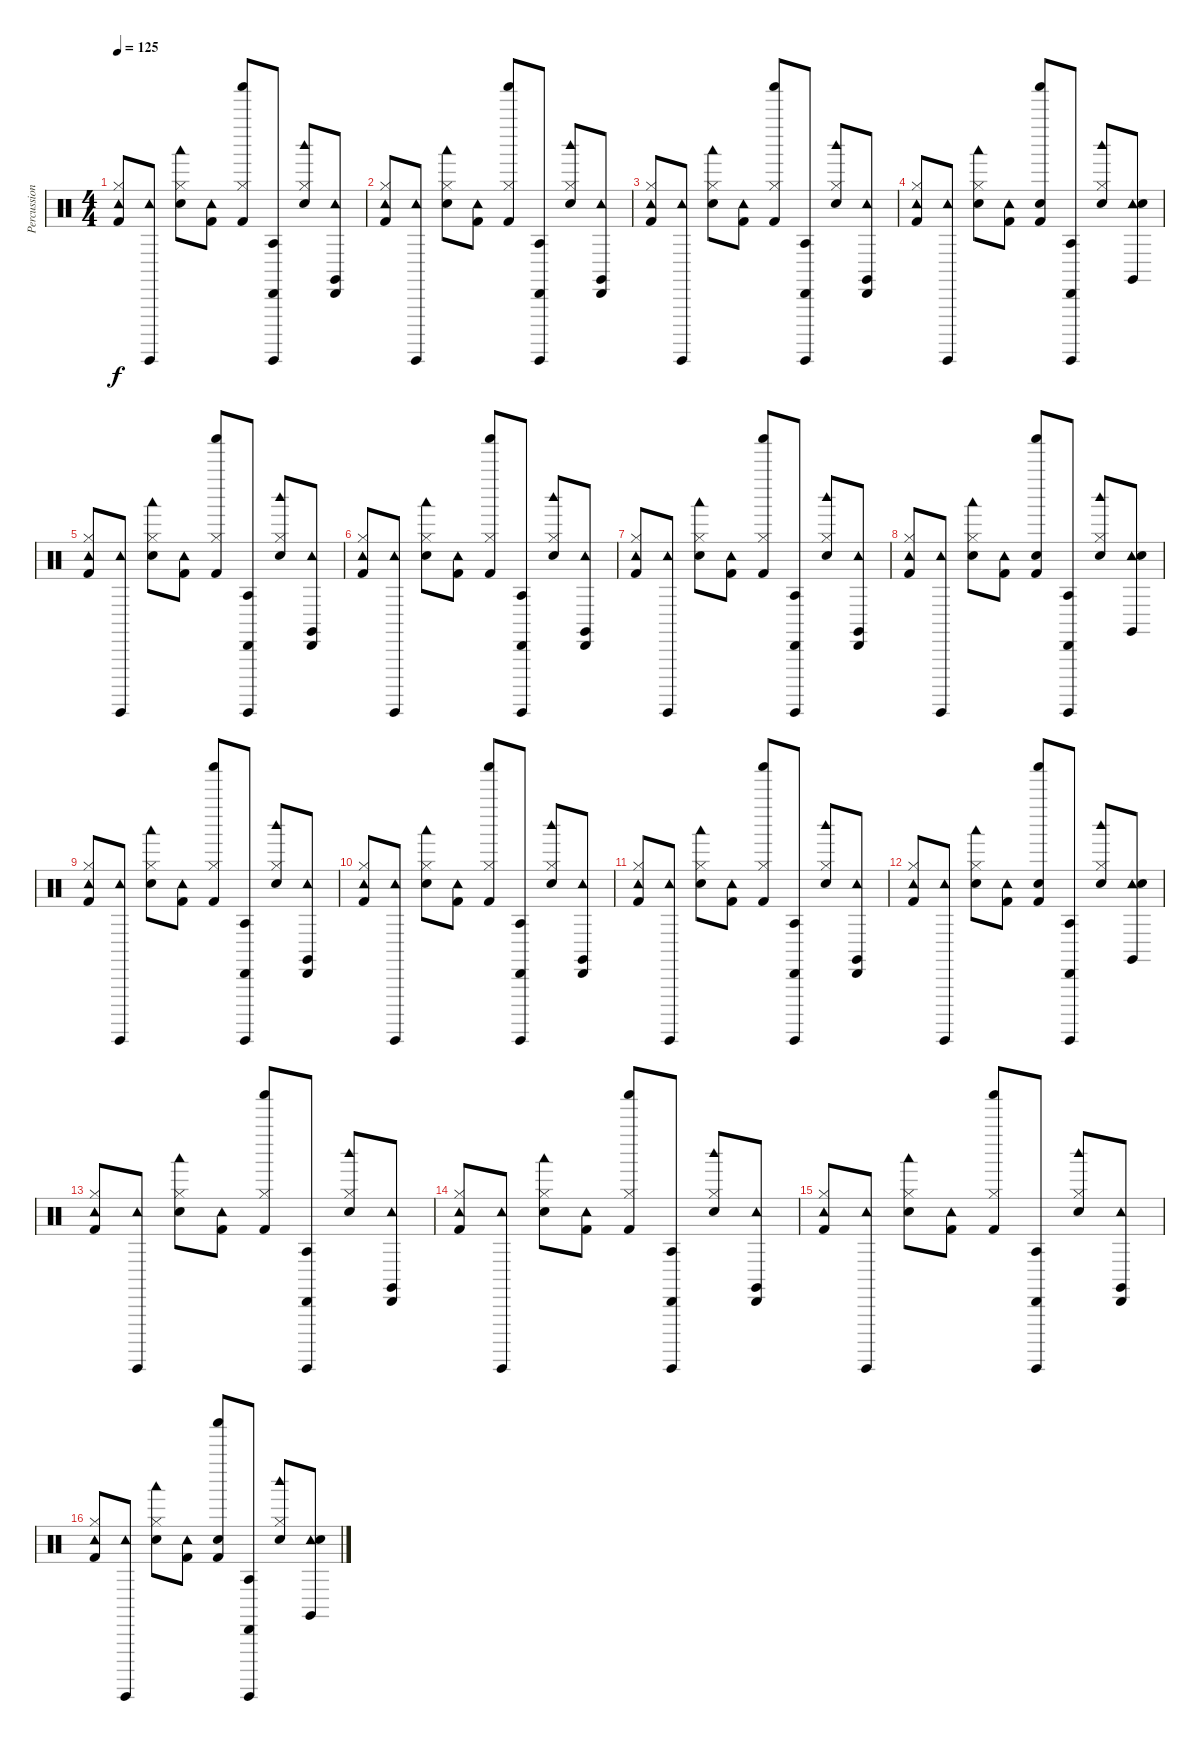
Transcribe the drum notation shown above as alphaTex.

\track ("Percussion" "Percussion") {instrument percussion}
\staff {score}
\articulation defaults
\ts (4 4)
\tempo 125
\clef neutral
\ks c
("Tambourine (hit)" "Hi-Hat (closed)" "Kick (hit) 2").8{dy f} ("Tambourine (hit)" "Guiro (hit)").8 ("Electric Snare (hit)" "Hi-Hat (closed)" "Woodblock low (hit)").8 ("Tambourine (hit)" "Kick (hit) 2").8 ("Shaker (hit)" "Hi-Hat (closed)" "Kick (hit) 2").8 ("Cabasa (hit)" "Guiro (hit)" "Agogo tow (hit)").8 ("Electric Snare (hit)" "Hi-Hat (closed)" "Woodblock high (hit)").8 ("Tambourine (hit)" "Cabasa (hit)" "Claves (hit)").8 |
("Tambourine (hit)" "Hi-Hat (closed)" "Kick (hit) 2").8 ("Tambourine (hit)" "Guiro (hit)").8 ("Electric Snare (hit)" "Hi-Hat (closed)" "Woodblock low (hit)").8 ("Tambourine (hit)" "Kick (hit) 2").8 ("Shaker (hit)" "Hi-Hat (closed)" "Kick (hit) 2").8 ("Cabasa (hit)" "Guiro (hit)" "Agogo tow (hit)").8 ("Electric Snare (hit)" "Hi-Hat (closed)" "Woodblock high (hit)").8 ("Tambourine (hit)" "Cabasa (hit)" "Claves (hit)").8 |
("Tambourine (hit)" "Hi-Hat (closed)" "Kick (hit) 2").8 ("Tambourine (hit)" "Guiro (hit)").8 ("Electric Snare (hit)" "Hi-Hat (closed)" "Woodblock low (hit)").8 ("Tambourine (hit)" "Kick (hit) 2").8 ("Shaker (hit)" "Hi-Hat (closed)" "Kick (hit) 2").8 ("Cabasa (hit)" "Guiro (hit)" "Agogo tow (hit)").8 ("Electric Snare (hit)" "Hi-Hat (closed)" "Woodblock high (hit)").8 ("Tambourine (hit)" "Cabasa (hit)" "Claves (hit)").8 |
("Tambourine (hit)" "Hi-Hat (closed)" "Kick (hit) 2").8 ("Tambourine (hit)" "Guiro (hit)").8 ("Electric Snare (hit)" "Hi-Hat (closed)" "Woodblock low (hit)").8 ("Tambourine (hit)" "Kick (hit) 2").8 ("Shaker (hit)" "Electric Snare (hit)" "Kick (hit) 2").8 ("Cabasa (hit)" "Guiro (hit)" "Agogo tow (hit)").8 ("Electric Snare (hit)" "Hi-Hat (closed)" "Woodblock high (hit)").8 ("Tambourine (hit)" "Electric Snare (hit)" "Claves (hit)").8 |
("Tambourine (hit)" "Hi-Hat (closed)" "Kick (hit) 2").8 ("Tambourine (hit)" "Guiro (hit)").8 ("Electric Snare (hit)" "Hi-Hat (closed)" "Woodblock low (hit)").8 ("Tambourine (hit)" "Kick (hit) 2").8 ("Shaker (hit)" "Hi-Hat (closed)" "Kick (hit) 2").8 ("Cabasa (hit)" "Guiro (hit)" "Agogo tow (hit)").8 ("Electric Snare (hit)" "Hi-Hat (closed)" "Woodblock high (hit)").8 ("Tambourine (hit)" "Cabasa (hit)" "Claves (hit)").8 |
("Tambourine (hit)" "Hi-Hat (closed)" "Kick (hit) 2").8 ("Tambourine (hit)" "Guiro (hit)").8 ("Electric Snare (hit)" "Hi-Hat (closed)" "Woodblock low (hit)").8 ("Tambourine (hit)" "Kick (hit) 2").8 ("Shaker (hit)" "Hi-Hat (closed)" "Kick (hit) 2").8 ("Cabasa (hit)" "Guiro (hit)" "Agogo tow (hit)").8 ("Electric Snare (hit)" "Hi-Hat (closed)" "Woodblock high (hit)").8 ("Tambourine (hit)" "Cabasa (hit)" "Claves (hit)").8 |
("Tambourine (hit)" "Hi-Hat (closed)" "Kick (hit) 2").8 ("Tambourine (hit)" "Guiro (hit)").8 ("Electric Snare (hit)" "Hi-Hat (closed)" "Woodblock low (hit)").8 ("Tambourine (hit)" "Kick (hit) 2").8 ("Shaker (hit)" "Hi-Hat (closed)" "Kick (hit) 2").8 ("Cabasa (hit)" "Guiro (hit)" "Agogo tow (hit)").8 ("Electric Snare (hit)" "Hi-Hat (closed)" "Woodblock high (hit)").8 ("Tambourine (hit)" "Cabasa (hit)" "Claves (hit)").8 |
("Tambourine (hit)" "Hi-Hat (closed)" "Kick (hit) 2").8 ("Tambourine (hit)" "Guiro (hit)").8 ("Electric Snare (hit)" "Hi-Hat (closed)" "Woodblock low (hit)").8 ("Tambourine (hit)" "Kick (hit) 2").8 ("Shaker (hit)" "Electric Snare (hit)" "Kick (hit) 2").8 ("Cabasa (hit)" "Guiro (hit)" "Agogo tow (hit)").8 ("Electric Snare (hit)" "Hi-Hat (closed)" "Woodblock high (hit)").8 ("Tambourine (hit)" "Electric Snare (hit)" "Claves (hit)").8 |
("Tambourine (hit)" "Hi-Hat (closed)" "Kick (hit) 2").8 ("Tambourine (hit)" "Guiro (hit)").8 ("Electric Snare (hit)" "Hi-Hat (closed)" "Woodblock low (hit)").8 ("Tambourine (hit)" "Kick (hit) 2").8 ("Shaker (hit)" "Hi-Hat (closed)" "Kick (hit) 2").8 ("Cabasa (hit)" "Guiro (hit)" "Agogo tow (hit)").8 ("Electric Snare (hit)" "Hi-Hat (closed)" "Woodblock high (hit)").8 ("Tambourine (hit)" "Cabasa (hit)" "Claves (hit)").8 |
("Tambourine (hit)" "Hi-Hat (closed)" "Kick (hit) 2").8 ("Tambourine (hit)" "Guiro (hit)").8 ("Electric Snare (hit)" "Hi-Hat (closed)" "Woodblock low (hit)").8 ("Tambourine (hit)" "Kick (hit) 2").8 ("Shaker (hit)" "Hi-Hat (closed)" "Kick (hit) 2").8 ("Cabasa (hit)" "Guiro (hit)" "Agogo tow (hit)").8 ("Electric Snare (hit)" "Hi-Hat (closed)" "Woodblock high (hit)").8 ("Tambourine (hit)" "Cabasa (hit)" "Claves (hit)").8 |
("Tambourine (hit)" "Hi-Hat (closed)" "Kick (hit) 2").8 ("Tambourine (hit)" "Guiro (hit)").8 ("Electric Snare (hit)" "Hi-Hat (closed)" "Woodblock low (hit)").8 ("Tambourine (hit)" "Kick (hit) 2").8 ("Shaker (hit)" "Hi-Hat (closed)" "Kick (hit) 2").8 ("Cabasa (hit)" "Guiro (hit)" "Agogo tow (hit)").8 ("Electric Snare (hit)" "Hi-Hat (closed)" "Woodblock high (hit)").8 ("Tambourine (hit)" "Cabasa (hit)" "Claves (hit)").8 |
("Tambourine (hit)" "Hi-Hat (closed)" "Kick (hit) 2").8 ("Tambourine (hit)" "Guiro (hit)").8 ("Electric Snare (hit)" "Hi-Hat (closed)" "Woodblock low (hit)").8 ("Tambourine (hit)" "Kick (hit) 2").8 ("Shaker (hit)" "Electric Snare (hit)" "Kick (hit) 2").8 ("Cabasa (hit)" "Guiro (hit)" "Agogo tow (hit)").8 ("Electric Snare (hit)" "Hi-Hat (closed)" "Woodblock high (hit)").8 ("Tambourine (hit)" "Electric Snare (hit)" "Claves (hit)").8 |
("Tambourine (hit)" "Hi-Hat (closed)" "Kick (hit) 2").8 ("Tambourine (hit)" "Guiro (hit)").8 ("Electric Snare (hit)" "Hi-Hat (closed)" "Woodblock low (hit)").8 ("Tambourine (hit)" "Kick (hit) 2").8 ("Shaker (hit)" "Hi-Hat (closed)" "Kick (hit) 2").8 ("Cabasa (hit)" "Guiro (hit)" "Agogo tow (hit)").8 ("Electric Snare (hit)" "Hi-Hat (closed)" "Woodblock high (hit)").8 ("Tambourine (hit)" "Cabasa (hit)" "Claves (hit)").8 |
("Tambourine (hit)" "Hi-Hat (closed)" "Kick (hit) 2").8 ("Tambourine (hit)" "Guiro (hit)").8 ("Electric Snare (hit)" "Hi-Hat (closed)" "Woodblock low (hit)").8 ("Tambourine (hit)" "Kick (hit) 2").8 ("Shaker (hit)" "Hi-Hat (closed)" "Kick (hit) 2").8 ("Cabasa (hit)" "Guiro (hit)" "Agogo tow (hit)").8 ("Electric Snare (hit)" "Hi-Hat (closed)" "Woodblock high (hit)").8 ("Tambourine (hit)" "Cabasa (hit)" "Claves (hit)").8 |
("Tambourine (hit)" "Hi-Hat (closed)" "Kick (hit) 2").8 ("Tambourine (hit)" "Guiro (hit)").8 ("Electric Snare (hit)" "Hi-Hat (closed)" "Woodblock low (hit)").8 ("Tambourine (hit)" "Kick (hit) 2").8 ("Shaker (hit)" "Hi-Hat (closed)" "Kick (hit) 2").8 ("Cabasa (hit)" "Guiro (hit)" "Agogo tow (hit)").8 ("Electric Snare (hit)" "Hi-Hat (closed)" "Woodblock high (hit)").8 ("Tambourine (hit)" "Cabasa (hit)" "Claves (hit)").8 |
("Tambourine (hit)" "Hi-Hat (closed)" "Kick (hit) 2").8 ("Tambourine (hit)" "Guiro (hit)").8 ("Electric Snare (hit)" "Hi-Hat (closed)" "Woodblock low (hit)").8 ("Tambourine (hit)" "Kick (hit) 2").8 ("Shaker (hit)" "Electric Snare (hit)" "Kick (hit) 2").8 ("Cabasa (hit)" "Guiro (hit)" "Agogo tow (hit)").8 ("Electric Snare (hit)" "Hi-Hat (closed)" "Woodblock high (hit)").8 ("Tambourine (hit)" "Electric Snare (hit)" "Claves (hit)").8
